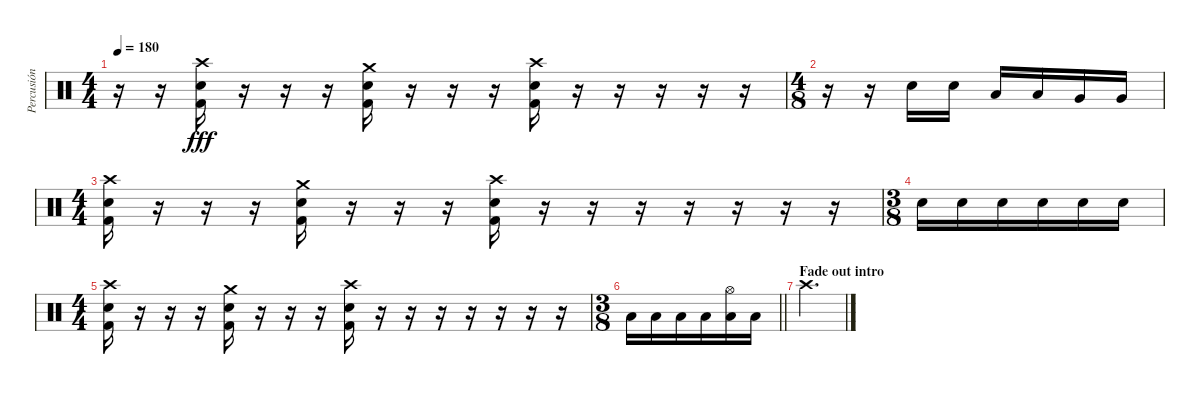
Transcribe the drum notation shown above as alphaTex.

\track ("Percusión" "Percusión") {instrument percussion}
\staff {score}
\articulation defaults
\ts (4 4)
\tempo 180
\clef neutral
\ks c
r.16{dy fff} r.16 ("Crash high (hit)" "Snare (hit) 2" "Kick (hit) 2").16 r.16 r.16 r.16 ("Crash medium (hit)" "Snare (hit) 2" "Kick (hit) 2").16 r.16 r.16 r.16 ("Crash high (hit)" "Snare (hit) 2" "Kick (hit) 2").16 r.16 r.16 r.16 r.16 r.16 |
\ts (4 8)
r.16 r.16 "Snare (hit) 2".16 "Snare (hit) 2".16 "Low Tom (hit)".16 "Low Tom (hit)".16 "Very Low Tom (hit)".16 "Very Low Tom (hit)".16 |
\ts (4 4)
("Crash high (hit)" "Snare (hit) 2" "Kick (hit) 2").16 r.16 r.16 r.16 ("Crash medium (hit)" "Snare (hit) 2" "Kick (hit) 2").16 r.16 r.16 r.16 ("Crash high (hit)" "Snare (hit) 2" "Kick (hit) 2").16 r.16 r.16 r.16 r.16 r.16 r.16 r.16 |
\ts (3 8)
"Snare (hit) 2".16 "Snare (hit) 2".16 "Snare (hit) 2".16 "Snare (hit) 2".16 "Snare (hit) 2".16 "Snare (hit) 2".16 |
\ts (4 4)
("Crash high (hit)" "Snare (hit) 2" "Kick (hit) 2").16 r.16 r.16 r.16 ("Crash medium (hit)" "Snare (hit) 2" "Kick (hit) 2").16 r.16 r.16 r.16 ("Crash high (hit)" "Snare (hit) 2" "Kick (hit) 2").16 r.16 r.16 r.16 r.16 r.16 r.16 r.16 |
\ts (3 8)
\barLineRight lightlight "Low Tom (hit)".16 "Low Tom (hit)".16 "Low Tom (hit)".16 "Low Tom (hit)".16
("Hi-Hat (open)" "Low Tom (hit)").16 "Low Tom (hit)".16 |
\section ("" "Fade out intro")
"Crash high (hit)".4{d}
